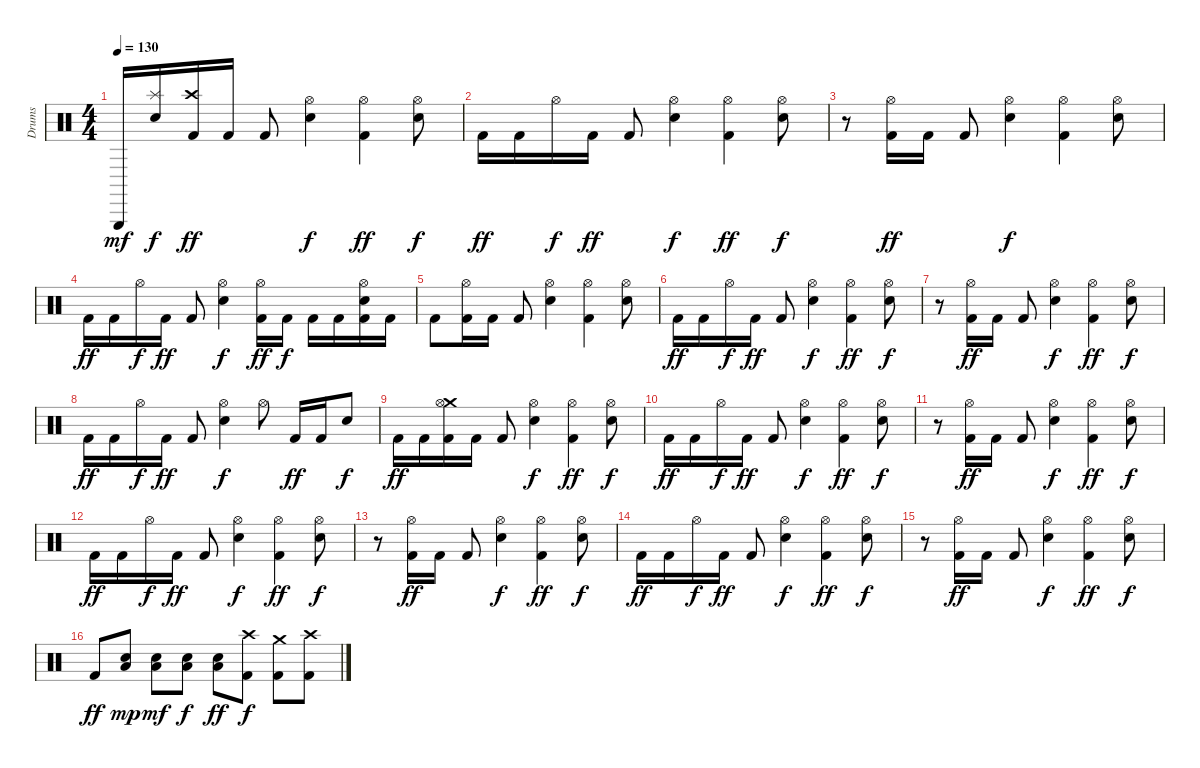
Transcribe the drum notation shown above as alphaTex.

\track ("Drums" "Drums") {instrument percussion}
\staff {score}
\articulation defaults
\ts (4 4)
\tempo 130
\clef neutral
\ks c "Triangle (hit)".16{dy mf}
("Splash (hit)" "Electric Snare (hit)").16{dy f} ("Crash high (hit)" "Kick (hit) 2").16{dy ff} "Kick (hit) 2".16 "Kick (hit) 2".8 ("Hi-Hat (open)" "Electric Snare (hit)").4{dy f} ("Hi-Hat (open)" "Kick (hit) 2").4{dy ff} ("Hi-Hat (open)" "Electric Snare (hit)").8{dy f} |
"Kick (hit) 2".16{dy ff} "Kick (hit) 2".16 "Hi-Hat (open)".16{dy f} "Kick (hit) 2".16{dy ff} "Kick (hit) 2".8 ("Hi-Hat (open)" "Electric Snare (hit)").4{dy f} ("Hi-Hat (open)" "Kick (hit) 2").4{dy ff} ("Hi-Hat (open)" "Electric Snare (hit)").8{dy f} |
r.8 ("Hi-Hat (open)" "Kick (hit) 2").16{dy ff} "Kick (hit) 2".16 "Kick (hit) 2".8 ("Hi-Hat (open)" "Electric Snare (hit)").4{dy f} ("Hi-Hat (open)" "Kick (hit) 2").4 ("Hi-Hat (open)" "Electric Snare (hit)").8 |
"Kick (hit) 2".16{dy ff} "Kick (hit) 2".16 "Hi-Hat (open)".16{dy f} "Kick (hit) 2".16{dy ff} "Kick (hit) 2".8 ("Hi-Hat (open)" "Electric Snare (hit)").4{dy f} ("Hi-Hat (open)" "Kick (hit) 2").16{dy ff} "Kick (hit) 2".16{dy f} "Kick (hit) 2".16 "Kick (hit) 2".16 ("Hi-Hat (open)" "Electric Snare (hit)" "Kick (hit) 2").16 "Kick (hit) 2".16 |
"Kick (hit) 2".8 ("Hi-Hat (open)" "Kick (hit) 2").16 "Kick (hit) 2".16 "Kick (hit) 2".8 ("Hi-Hat (open)" "Electric Snare (hit)").4 ("Hi-Hat (open)" "Kick (hit) 2").4 ("Hi-Hat (open)" "Electric Snare (hit)").8 |
"Kick (hit) 2".16{dy ff} "Kick (hit) 2".16 "Hi-Hat (open)".16{dy f} "Kick (hit) 2".16{dy ff} "Kick (hit) 2".8 ("Hi-Hat (open)" "Electric Snare (hit)").4{dy f} ("Hi-Hat (open)" "Kick (hit) 2").4{dy ff} ("Hi-Hat (open)" "Electric Snare (hit)").8{dy f} |
r.8 ("Hi-Hat (open)" "Kick (hit) 2").16{dy ff} "Kick (hit) 2".16 "Kick (hit) 2".8 ("Hi-Hat (open)" "Electric Snare (hit)").4{dy f} ("Hi-Hat (open)" "Kick (hit) 2").4{dy ff} ("Hi-Hat (open)" "Electric Snare (hit)").8{dy f} |
"Kick (hit) 2".16{dy ff} "Kick (hit) 2".16 "Hi-Hat (open)".16{dy f} "Kick (hit) 2".16{dy ff} "Kick (hit) 2".8 ("Hi-Hat (open)" "Electric Snare (hit)").4{dy f} "Hi-Hat (open)".8 "Kick (hit) 2".16{dy ff} "Kick (hit) 2".16 "Electric Snare (hit)".8{dy f} |
"Kick (hit) 2".16{dy ff} "Kick (hit) 2".16 ("Crash medium (hit)" "Hi-Hat (open)" "Kick (hit) 2").16 "Kick (hit) 2".16 "Kick (hit) 2".8 ("Hi-Hat (open)" "Electric Snare (hit)").4{dy f} ("Hi-Hat (open)" "Kick (hit) 2").4{dy ff} ("Hi-Hat (open)" "Electric Snare (hit)").8{dy f} |
"Kick (hit) 2".16{dy ff} "Kick (hit) 2".16 "Hi-Hat (open)".16{dy f} "Kick (hit) 2".16{dy ff} "Kick (hit) 2".8 ("Hi-Hat (open)" "Electric Snare (hit)").4{dy f} ("Hi-Hat (open)" "Kick (hit) 2").4{dy ff} ("Hi-Hat (open)" "Electric Snare (hit)").8{dy f} |
r.8 ("Hi-Hat (open)" "Kick (hit) 2").16{dy ff} "Kick (hit) 2".16 "Kick (hit) 2".8 ("Hi-Hat (open)" "Electric Snare (hit)").4{dy f} ("Hi-Hat (open)" "Kick (hit) 2").4{dy ff} ("Hi-Hat (open)" "Electric Snare (hit)").8{dy f} |
"Kick (hit) 2".16{dy ff} "Kick (hit) 2".16 "Hi-Hat (open)".16{dy f} "Kick (hit) 2".16{dy ff} "Kick (hit) 2".8 ("Hi-Hat (open)" "Electric Snare (hit)").4{dy f} ("Hi-Hat (open)" "Kick (hit) 2").4{dy ff} ("Hi-Hat (open)" "Electric Snare (hit)").8{dy f} |
r.8 ("Hi-Hat (open)" "Kick (hit) 2").16{dy ff} "Kick (hit) 2".16 "Kick (hit) 2".8 ("Hi-Hat (open)" "Electric Snare (hit)").4{dy f} ("Hi-Hat (open)" "Kick (hit) 2").4{dy ff} ("Hi-Hat (open)" "Electric Snare (hit)").8{dy f} |
"Kick (hit) 2".16{dy ff} "Kick (hit) 2".16 "Hi-Hat (open)".16{dy f} "Kick (hit) 2".16{dy ff} "Kick (hit) 2".8 ("Hi-Hat (open)" "Electric Snare (hit)").4{dy f} ("Hi-Hat (open)" "Kick (hit) 2").4{dy ff} ("Hi-Hat (open)" "Electric Snare (hit)").8{dy f} |
r.8 ("Hi-Hat (open)" "Kick (hit) 2").16{dy ff} "Kick (hit) 2".16 "Kick (hit) 2".8 ("Hi-Hat (open)" "Electric Snare (hit)").4{dy f} ("Hi-Hat (open)" "Kick (hit) 2").4{dy ff} ("Hi-Hat (open)" "Electric Snare (hit)").8{dy f} |
"Kick (hit) 2".8{dy ff} ("Electric Snare (hit)" "Low Floor Tom (hit)").8{dy mp} ("Electric Snare (hit)" "Low Floor Tom (hit)").8{dy mf} ("Electric Snare (hit)" "Low Floor Tom (hit)").8{dy f} ("Electric Snare (hit)" "Low Floor Tom (hit)").8{dy ff} ("Crash high (hit)" "Kick (hit) 2").8{dy f} ("Crash medium (hit)" "Kick (hit) 2").8 ("Crash high (hit)" "Kick (hit) 2").8
